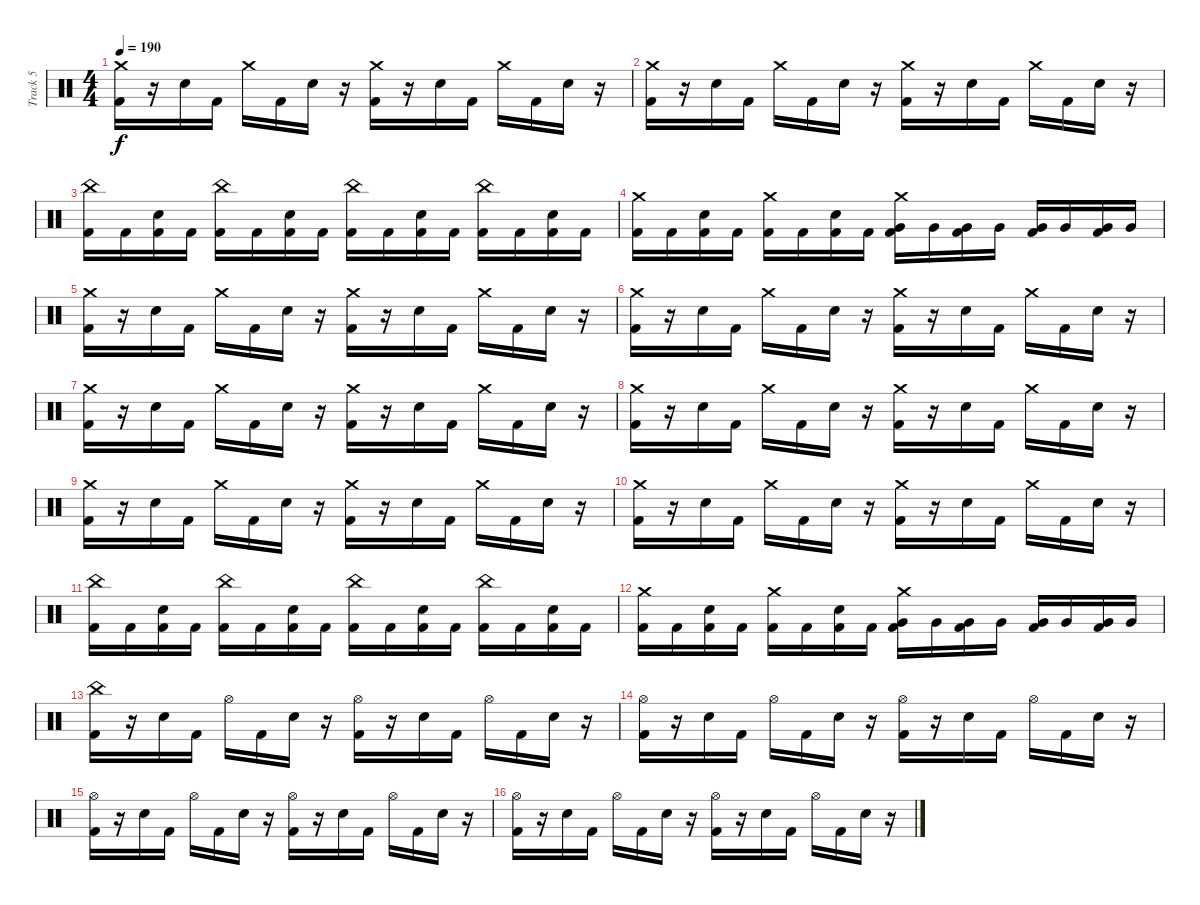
\track ("Track 5" "Track 5") {instrument percussion}
\staff {score}
\articulation defaults
\ts (4 4)
\tempo 190
\clef neutral
\ks c
("Crash medium (hit)" "Kick (hit) 2").16{dy f} r.16 "Electric Snare (hit)".16 "Kick (hit) 2".16 "Crash medium (hit)".16 "Kick (hit) 2".16 "Electric Snare (hit)".16 r.16 ("Crash medium (hit)" "Kick (hit) 2").16 r.16 "Electric Snare (hit)".16 "Kick (hit) 2".16 "Crash medium (hit)".16 "Kick (hit) 2".16 "Electric Snare (hit)".16 r.16 |
("Crash medium (hit)" "Kick (hit) 2").16 r.16 "Electric Snare (hit)".16 "Kick (hit) 2".16 "Crash medium (hit)".16 "Kick (hit) 2".16 "Electric Snare (hit)".16 r.16 ("Crash medium (hit)" "Kick (hit) 2").16 r.16 "Electric Snare (hit)".16 "Kick (hit) 2".16 "Crash medium (hit)".16 "Kick (hit) 2".16 "Electric Snare (hit)".16 r.16 |
("China (hit)" "Kick (hit) 2").16 "Kick (hit) 2".16 ("Electric Snare (hit)" "Kick (hit) 2").16 "Kick (hit) 2".16 ("China (hit)" "Kick (hit) 2").16 "Kick (hit) 2".16 ("Electric Snare (hit)" "Kick (hit) 2").16 "Kick (hit) 2".16 ("China (hit)" "Kick (hit) 2").16 "Kick (hit) 2".16 ("Electric Snare (hit)" "Kick (hit) 2").16 "Kick (hit) 2".16 ("China (hit)" "Kick (hit) 2").16 "Kick (hit) 2".16 ("Electric Snare (hit)" "Kick (hit) 2").16 "Kick (hit) 2".16 |
("Crash medium (hit)" "Kick (hit) 2").16 "Kick (hit) 2".16 ("Electric Snare (hit)" "Kick (hit) 2").16 "Kick (hit) 2".16 ("Crash medium (hit)" "Kick (hit) 2").16 "Kick (hit) 2".16 ("Electric Snare (hit)" "Kick (hit) 2").16 "Kick (hit) 2".16 ("Crash medium (hit)" "Very Low Tom (hit)" "Kick (hit) 2").16 "Very Low Tom (hit)".16 ("Very Low Tom (hit)" "Kick (hit) 2").16 "Very Low Tom (hit)".16 ("Very Low Tom (hit)" "Kick (hit) 2").16 "Very Low Tom (hit)".16 ("Very Low Tom (hit)" "Kick (hit) 2").16 "Very Low Tom (hit)".16 |
("Crash medium (hit)" "Kick (hit) 2").16 r.16 "Electric Snare (hit)".16 "Kick (hit) 2".16 "Crash medium (hit)".16 "Kick (hit) 2".16 "Electric Snare (hit)".16 r.16 ("Crash medium (hit)" "Kick (hit) 2").16 r.16 "Electric Snare (hit)".16 "Kick (hit) 2".16 "Crash medium (hit)".16 "Kick (hit) 2".16 "Electric Snare (hit)".16 r.16 |
("Crash medium (hit)" "Kick (hit) 2").16 r.16 "Electric Snare (hit)".16 "Kick (hit) 2".16 "Crash medium (hit)".16 "Kick (hit) 2".16 "Electric Snare (hit)".16 r.16 ("Crash medium (hit)" "Kick (hit) 2").16 r.16 "Electric Snare (hit)".16 "Kick (hit) 2".16 "Crash medium (hit)".16 "Kick (hit) 2".16 "Electric Snare (hit)".16 r.16 |
("Crash medium (hit)" "Kick (hit) 2").16 r.16 "Electric Snare (hit)".16 "Kick (hit) 2".16 "Crash medium (hit)".16 "Kick (hit) 2".16 "Electric Snare (hit)".16 r.16 ("Crash medium (hit)" "Kick (hit) 2").16 r.16 "Electric Snare (hit)".16 "Kick (hit) 2".16 "Crash medium (hit)".16 "Kick (hit) 2".16 "Electric Snare (hit)".16 r.16 |
("Crash medium (hit)" "Kick (hit) 2").16 r.16 "Electric Snare (hit)".16 "Kick (hit) 2".16 "Crash medium (hit)".16 "Kick (hit) 2".16 "Electric Snare (hit)".16 r.16 ("Crash medium (hit)" "Kick (hit) 2").16 r.16 "Electric Snare (hit)".16 "Kick (hit) 2".16 "Crash medium (hit)".16 "Kick (hit) 2".16 "Electric Snare (hit)".16 r.16 |
("Crash medium (hit)" "Kick (hit) 2").16 r.16 "Electric Snare (hit)".16 "Kick (hit) 2".16 "Crash medium (hit)".16 "Kick (hit) 2".16 "Electric Snare (hit)".16 r.16 ("Crash medium (hit)" "Kick (hit) 2").16 r.16 "Electric Snare (hit)".16 "Kick (hit) 2".16 "Crash medium (hit)".16 "Kick (hit) 2".16 "Electric Snare (hit)".16 r.16 |
("Crash medium (hit)" "Kick (hit) 2").16 r.16 "Electric Snare (hit)".16 "Kick (hit) 2".16 "Crash medium (hit)".16 "Kick (hit) 2".16 "Electric Snare (hit)".16 r.16 ("Crash medium (hit)" "Kick (hit) 2").16 r.16 "Electric Snare (hit)".16 "Kick (hit) 2".16 "Crash medium (hit)".16 "Kick (hit) 2".16 "Electric Snare (hit)".16 r.16 |
("China (hit)" "Kick (hit) 2").16 "Kick (hit) 2".16 ("Electric Snare (hit)" "Kick (hit) 2").16 "Kick (hit) 2".16 ("China (hit)" "Kick (hit) 2").16 "Kick (hit) 2".16 ("Electric Snare (hit)" "Kick (hit) 2").16 "Kick (hit) 2".16 ("China (hit)" "Kick (hit) 2").16 "Kick (hit) 2".16 ("Electric Snare (hit)" "Kick (hit) 2").16 "Kick (hit) 2".16 ("China (hit)" "Kick (hit) 2").16 "Kick (hit) 2".16 ("Electric Snare (hit)" "Kick (hit) 2").16 "Kick (hit) 2".16 |
("Crash medium (hit)" "Kick (hit) 2").16 "Kick (hit) 2".16 ("Electric Snare (hit)" "Kick (hit) 2").16 "Kick (hit) 2".16 ("Crash medium (hit)" "Kick (hit) 2").16 "Kick (hit) 2".16 ("Electric Snare (hit)" "Kick (hit) 2").16 "Kick (hit) 2".16 ("Crash medium (hit)" "Very Low Tom (hit)" "Kick (hit) 2").16 "Very Low Tom (hit)".16 ("Very Low Tom (hit)" "Kick (hit) 2").16 "Very Low Tom (hit)".16 ("Very Low Tom (hit)" "Kick (hit) 2").16 "Very Low Tom (hit)".16 ("Very Low Tom (hit)" "Kick (hit) 2").16 "Very Low Tom (hit)".16 |
("China (hit)" "Kick (hit) 2").16 r.16 "Electric Snare (hit)".16 "Kick (hit) 2".16 "Hi-Hat (open)".16 "Kick (hit) 2".16 "Electric Snare (hit)".16 r.16 ("Hi-Hat (open)" "Kick (hit) 2").16 r.16 "Electric Snare (hit)".16 "Kick (hit) 2".16 "Hi-Hat (open)".16 "Kick (hit) 2".16 "Electric Snare (hit)".16 r.16 |
("Hi-Hat (open)" "Kick (hit) 2").16 r.16 "Electric Snare (hit)".16 "Kick (hit) 2".16 "Hi-Hat (open)".16 "Kick (hit) 2".16 "Electric Snare (hit)".16 r.16 ("Hi-Hat (open)" "Kick (hit) 2").16 r.16 "Electric Snare (hit)".16 "Kick (hit) 2".16 "Hi-Hat (open)".16 "Kick (hit) 2".16 "Electric Snare (hit)".16 r.16 |
("Hi-Hat (open)" "Kick (hit) 2").16 r.16 "Electric Snare (hit)".16 "Kick (hit) 2".16 "Hi-Hat (open)".16 "Kick (hit) 2".16 "Electric Snare (hit)".16 r.16 ("Hi-Hat (open)" "Kick (hit) 2").16 r.16 "Electric Snare (hit)".16 "Kick (hit) 2".16 "Hi-Hat (open)".16 "Kick (hit) 2".16 "Electric Snare (hit)".16 r.16 |
("Hi-Hat (open)" "Kick (hit) 2").16 r.16 "Electric Snare (hit)".16 "Kick (hit) 2".16 "Hi-Hat (open)".16 "Kick (hit) 2".16 "Electric Snare (hit)".16 r.16 ("Hi-Hat (open)" "Kick (hit) 2").16 r.16 "Electric Snare (hit)".16 "Kick (hit) 2".16 "Hi-Hat (open)".16 "Kick (hit) 2".16 "Electric Snare (hit)".16 r.16
